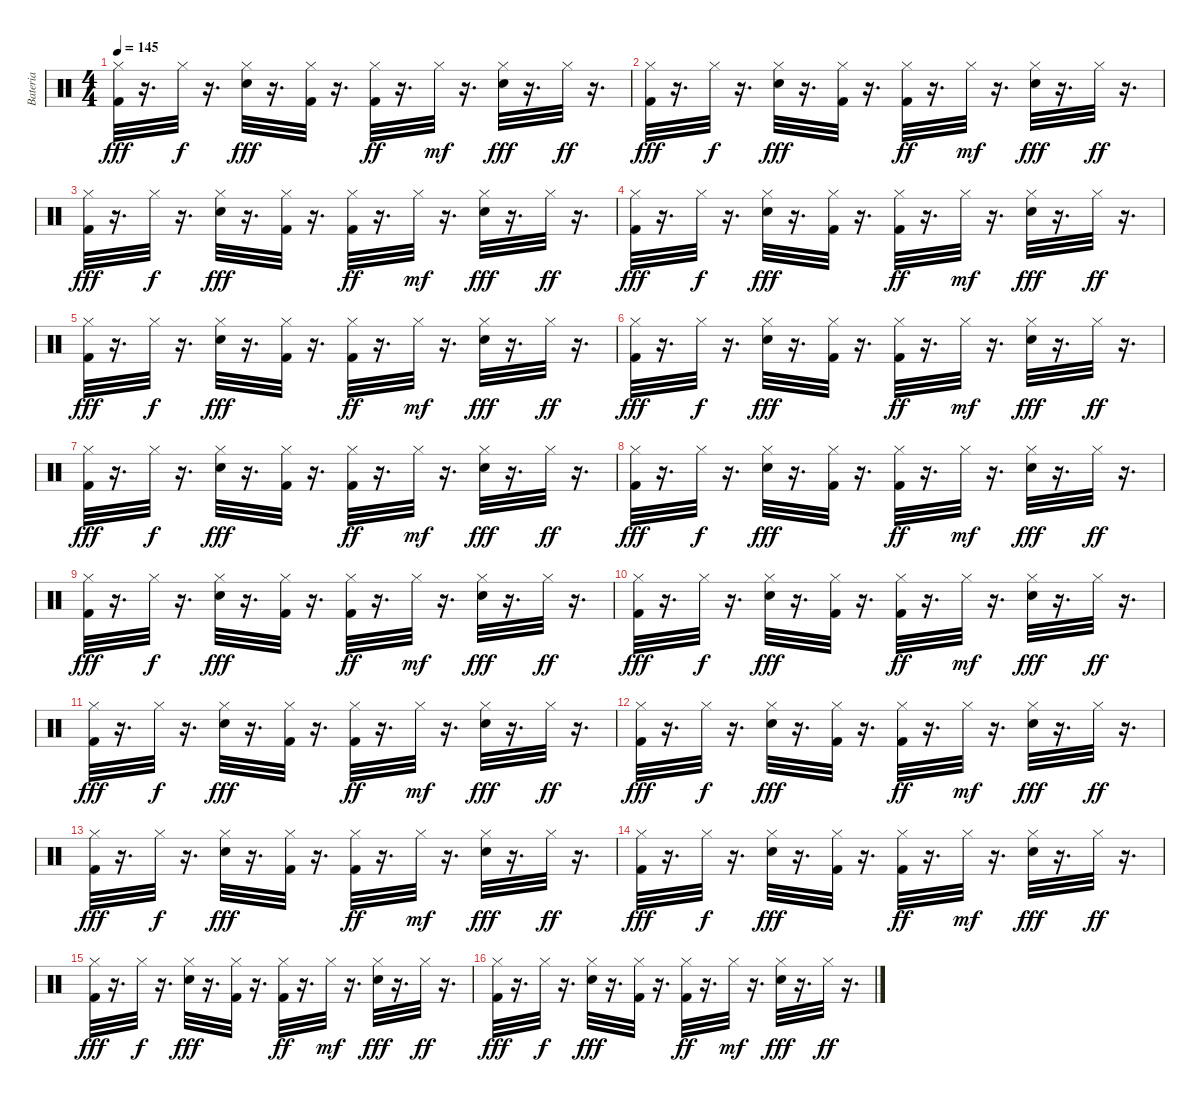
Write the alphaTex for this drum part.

\track ("Bateria" "Bateria") {instrument percussion}
\staff {score}
\articulation defaults
\ts (4 4)
\tempo 145
\clef neutral
\ks c
("Kick (hit) 2" "Hi-Hat (closed)").32{dy fff} r.16{d} "Hi-Hat (closed)".32{dy f} r.16{d} ("Electric Snare (hit)" "Hi-Hat (closed)").32{dy fff} r.16{d} ("Kick (hit) 2" "Hi-Hat (closed)").32 r.16{d} ("Kick (hit) 2" "Hi-Hat (closed)").32{dy ff} r.16{d} "Hi-Hat (closed)".32{dy mf} r.16{d} ("Electric Snare (hit)" "Hi-Hat (closed)").32{dy fff} r.16{d} "Hi-Hat (closed)".32{dy ff} r.16{d} |
("Kick (hit) 2" "Hi-Hat (closed)").32{dy fff} r.16{d} "Hi-Hat (closed)".32{dy f} r.16{d} ("Electric Snare (hit)" "Hi-Hat (closed)").32{dy fff} r.16{d} ("Kick (hit) 2" "Hi-Hat (closed)").32 r.16{d} ("Kick (hit) 2" "Hi-Hat (closed)").32{dy ff} r.16{d} "Hi-Hat (closed)".32{dy mf} r.16{d} ("Electric Snare (hit)" "Hi-Hat (closed)").32{dy fff} r.16{d} "Hi-Hat (closed)".32{dy ff} r.16{d} |
("Kick (hit) 2" "Hi-Hat (closed)").32{dy fff} r.16{d} "Hi-Hat (closed)".32{dy f} r.16{d} ("Electric Snare (hit)" "Hi-Hat (closed)").32{dy fff} r.16{d} ("Kick (hit) 2" "Hi-Hat (closed)").32 r.16{d} ("Kick (hit) 2" "Hi-Hat (closed)").32{dy ff} r.16{d} "Hi-Hat (closed)".32{dy mf} r.16{d} ("Electric Snare (hit)" "Hi-Hat (closed)").32{dy fff} r.16{d} "Hi-Hat (closed)".32{dy ff} r.16{d} |
("Kick (hit) 2" "Hi-Hat (closed)").32{dy fff} r.16{d} "Hi-Hat (closed)".32{dy f} r.16{d} ("Electric Snare (hit)" "Hi-Hat (closed)").32{dy fff} r.16{d} ("Kick (hit) 2" "Hi-Hat (closed)").32 r.16{d} ("Kick (hit) 2" "Hi-Hat (closed)").32{dy ff} r.16{d} "Hi-Hat (closed)".32{dy mf} r.16{d} ("Electric Snare (hit)" "Hi-Hat (closed)").32{dy fff} r.16{d} "Hi-Hat (closed)".32{dy ff} r.16{d} |
("Kick (hit) 2" "Hi-Hat (closed)").32{dy fff} r.16{d} "Hi-Hat (closed)".32{dy f} r.16{d} ("Electric Snare (hit)" "Hi-Hat (closed)").32{dy fff} r.16{d} ("Kick (hit) 2" "Hi-Hat (closed)").32 r.16{d} ("Kick (hit) 2" "Hi-Hat (closed)").32{dy ff} r.16{d} "Hi-Hat (closed)".32{dy mf} r.16{d} ("Electric Snare (hit)" "Hi-Hat (closed)").32{dy fff} r.16{d} "Hi-Hat (closed)".32{dy ff} r.16{d} |
("Kick (hit) 2" "Hi-Hat (closed)").32{dy fff} r.16{d} "Hi-Hat (closed)".32{dy f} r.16{d} ("Electric Snare (hit)" "Hi-Hat (closed)").32{dy fff} r.16{d} ("Kick (hit) 2" "Hi-Hat (closed)").32 r.16{d} ("Kick (hit) 2" "Hi-Hat (closed)").32{dy ff} r.16{d} "Hi-Hat (closed)".32{dy mf} r.16{d} ("Electric Snare (hit)" "Hi-Hat (closed)").32{dy fff} r.16{d} "Hi-Hat (closed)".32{dy ff} r.16{d} |
("Kick (hit) 2" "Hi-Hat (closed)").32{dy fff} r.16{d} "Hi-Hat (closed)".32{dy f} r.16{d} ("Electric Snare (hit)" "Hi-Hat (closed)").32{dy fff} r.16{d} ("Kick (hit) 2" "Hi-Hat (closed)").32 r.16{d} ("Kick (hit) 2" "Hi-Hat (closed)").32{dy ff} r.16{d} "Hi-Hat (closed)".32{dy mf} r.16{d} ("Electric Snare (hit)" "Hi-Hat (closed)").32{dy fff} r.16{d} "Hi-Hat (closed)".32{dy ff} r.16{d} |
("Kick (hit) 2" "Hi-Hat (closed)").32{dy fff} r.16{d} "Hi-Hat (closed)".32{dy f} r.16{d} ("Electric Snare (hit)" "Hi-Hat (closed)").32{dy fff} r.16{d} ("Kick (hit) 2" "Hi-Hat (closed)").32 r.16{d} ("Kick (hit) 2" "Hi-Hat (closed)").32{dy ff} r.16{d} "Hi-Hat (closed)".32{dy mf} r.16{d} ("Electric Snare (hit)" "Hi-Hat (closed)").32{dy fff} r.16{d} "Hi-Hat (closed)".32{dy ff} r.16{d} |
("Kick (hit) 2" "Hi-Hat (closed)").32{dy fff} r.16{d} "Hi-Hat (closed)".32{dy f} r.16{d} ("Electric Snare (hit)" "Hi-Hat (closed)").32{dy fff} r.16{d} ("Kick (hit) 2" "Hi-Hat (closed)").32 r.16{d} ("Kick (hit) 2" "Hi-Hat (closed)").32{dy ff} r.16{d} "Hi-Hat (closed)".32{dy mf} r.16{d} ("Electric Snare (hit)" "Hi-Hat (closed)").32{dy fff} r.16{d} "Hi-Hat (closed)".32{dy ff} r.16{d} |
("Kick (hit) 2" "Hi-Hat (closed)").32{dy fff} r.16{d} "Hi-Hat (closed)".32{dy f} r.16{d} ("Electric Snare (hit)" "Hi-Hat (closed)").32{dy fff} r.16{d} ("Kick (hit) 2" "Hi-Hat (closed)").32 r.16{d} ("Kick (hit) 2" "Hi-Hat (closed)").32{dy ff} r.16{d} "Hi-Hat (closed)".32{dy mf} r.16{d} ("Electric Snare (hit)" "Hi-Hat (closed)").32{dy fff} r.16{d} "Hi-Hat (closed)".32{dy ff} r.16{d} |
("Kick (hit) 2" "Hi-Hat (closed)").32{dy fff} r.16{d} "Hi-Hat (closed)".32{dy f} r.16{d} ("Electric Snare (hit)" "Hi-Hat (closed)").32{dy fff} r.16{d} ("Kick (hit) 2" "Hi-Hat (closed)").32 r.16{d} ("Kick (hit) 2" "Hi-Hat (closed)").32{dy ff} r.16{d} "Hi-Hat (closed)".32{dy mf} r.16{d} ("Electric Snare (hit)" "Hi-Hat (closed)").32{dy fff} r.16{d} "Hi-Hat (closed)".32{dy ff} r.16{d} |
("Kick (hit) 2" "Hi-Hat (closed)").32{dy fff} r.16{d} "Hi-Hat (closed)".32{dy f} r.16{d} ("Electric Snare (hit)" "Hi-Hat (closed)").32{dy fff} r.16{d} ("Kick (hit) 2" "Hi-Hat (closed)").32 r.16{d} ("Kick (hit) 2" "Hi-Hat (closed)").32{dy ff} r.16{d} "Hi-Hat (closed)".32{dy mf} r.16{d} ("Electric Snare (hit)" "Hi-Hat (closed)").32{dy fff} r.16{d} "Hi-Hat (closed)".32{dy ff} r.16{d} |
("Kick (hit) 2" "Hi-Hat (closed)").32{dy fff} r.16{d} "Hi-Hat (closed)".32{dy f} r.16{d} ("Electric Snare (hit)" "Hi-Hat (closed)").32{dy fff} r.16{d} ("Kick (hit) 2" "Hi-Hat (closed)").32 r.16{d} ("Kick (hit) 2" "Hi-Hat (closed)").32{dy ff} r.16{d} "Hi-Hat (closed)".32{dy mf} r.16{d} ("Electric Snare (hit)" "Hi-Hat (closed)").32{dy fff} r.16{d} "Hi-Hat (closed)".32{dy ff} r.16{d} |
("Kick (hit) 2" "Hi-Hat (closed)").32{dy fff} r.16{d} "Hi-Hat (closed)".32{dy f} r.16{d} ("Electric Snare (hit)" "Hi-Hat (closed)").32{dy fff} r.16{d} ("Kick (hit) 2" "Hi-Hat (closed)").32 r.16{d} ("Kick (hit) 2" "Hi-Hat (closed)").32{dy ff} r.16{d} "Hi-Hat (closed)".32{dy mf} r.16{d} ("Electric Snare (hit)" "Hi-Hat (closed)").32{dy fff} r.16{d} "Hi-Hat (closed)".32{dy ff} r.16{d} |
("Kick (hit) 2" "Hi-Hat (closed)").32{dy fff} r.16{d} "Hi-Hat (closed)".32{dy f} r.16{d} ("Electric Snare (hit)" "Hi-Hat (closed)").32{dy fff} r.16{d} ("Kick (hit) 2" "Hi-Hat (closed)").32 r.16{d} ("Kick (hit) 2" "Hi-Hat (closed)").32{dy ff} r.16{d} "Hi-Hat (closed)".32{dy mf} r.16{d} ("Electric Snare (hit)" "Hi-Hat (closed)").32{dy fff} r.16{d} "Hi-Hat (closed)".32{dy ff} r.16{d} |
("Kick (hit) 2" "Hi-Hat (closed)").32{dy fff} r.16{d} "Hi-Hat (closed)".32{dy f} r.16{d} ("Electric Snare (hit)" "Hi-Hat (closed)").32{dy fff} r.16{d} ("Kick (hit) 2" "Hi-Hat (closed)").32 r.16{d} ("Kick (hit) 2" "Hi-Hat (closed)").32{dy ff} r.16{d} "Hi-Hat (closed)".32{dy mf} r.16{d} ("Electric Snare (hit)" "Hi-Hat (closed)").32{dy fff} r.16{d} "Hi-Hat (closed)".32{dy ff} r.16{d}
